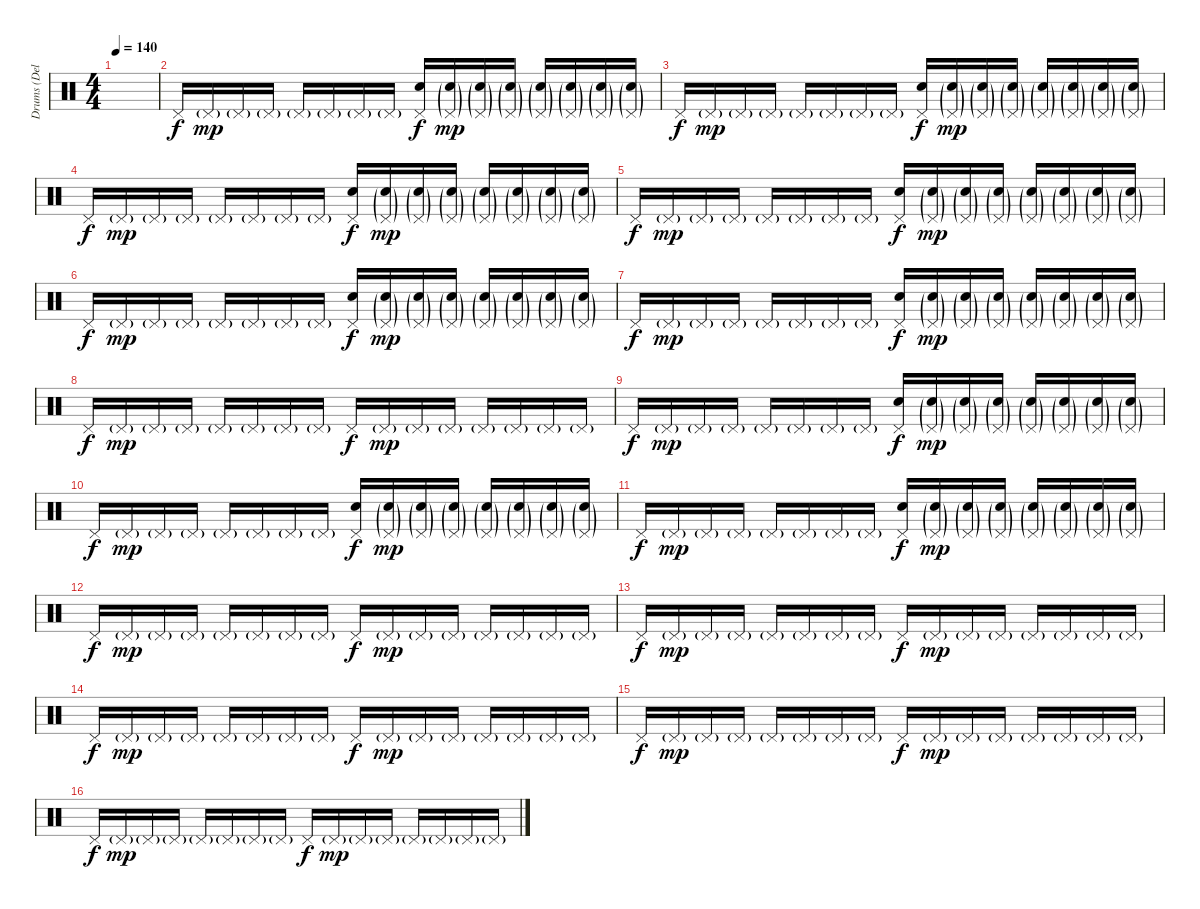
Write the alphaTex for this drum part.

\track ("Drums (Delay Effect)" "Drums (Del") {instrument percussion}
\staff {score}
\articulation defaults
\ts (4 4)
\tempo 140
\clef neutral
\ks c
|
"Pedal Hi-Hat (hit)".16{dy f} "Pedal Hi-Hat (hit)"{g}.16{dy mp} "Pedal Hi-Hat (hit)"{g}.16 "Pedal Hi-Hat (hit)"{g}.16 "Pedal Hi-Hat (hit)"{g}.16 "Pedal Hi-Hat (hit)"{g}.16 "Pedal Hi-Hat (hit)"{g}.16 "Pedal Hi-Hat (hit)"{g}.16 ("Pedal Hi-Hat (hit)" "Electric Snare (hit)").16{dy f} ("Pedal Hi-Hat (hit)"{g} "Electric Snare (hit)"{g}).16{dy mp} ("Pedal Hi-Hat (hit)"{g} "Electric Snare (hit)"{g}).16 ("Pedal Hi-Hat (hit)"{g} "Electric Snare (hit)"{g}).16 ("Pedal Hi-Hat (hit)"{g} "Electric Snare (hit)"{g}).16 ("Pedal Hi-Hat (hit)"{g} "Electric Snare (hit)"{g}).16 ("Pedal Hi-Hat (hit)"{g} "Electric Snare (hit)"{g}).16 ("Pedal Hi-Hat (hit)"{g} "Electric Snare (hit)"{g}).16 |
"Pedal Hi-Hat (hit)".16{dy f} "Pedal Hi-Hat (hit)"{g}.16{dy mp} "Pedal Hi-Hat (hit)"{g}.16 "Pedal Hi-Hat (hit)"{g}.16 "Pedal Hi-Hat (hit)"{g}.16 "Pedal Hi-Hat (hit)"{g}.16 "Pedal Hi-Hat (hit)"{g}.16 "Pedal Hi-Hat (hit)"{g}.16 ("Pedal Hi-Hat (hit)" "Electric Snare (hit)").16{dy f} ("Pedal Hi-Hat (hit)"{g} "Electric Snare (hit)"{g}).16{dy mp} ("Pedal Hi-Hat (hit)"{g} "Electric Snare (hit)"{g}).16 ("Pedal Hi-Hat (hit)"{g} "Electric Snare (hit)"{g}).16 ("Pedal Hi-Hat (hit)"{g} "Electric Snare (hit)"{g}).16 ("Pedal Hi-Hat (hit)"{g} "Electric Snare (hit)"{g}).16 ("Pedal Hi-Hat (hit)"{g} "Electric Snare (hit)"{g}).16 ("Pedal Hi-Hat (hit)"{g} "Electric Snare (hit)"{g}).16 |
"Pedal Hi-Hat (hit)".16{dy f} "Pedal Hi-Hat (hit)"{g}.16{dy mp} "Pedal Hi-Hat (hit)"{g}.16 "Pedal Hi-Hat (hit)"{g}.16 "Pedal Hi-Hat (hit)"{g}.16 "Pedal Hi-Hat (hit)"{g}.16 "Pedal Hi-Hat (hit)"{g}.16 "Pedal Hi-Hat (hit)"{g}.16 ("Pedal Hi-Hat (hit)" "Electric Snare (hit)").16{dy f} ("Pedal Hi-Hat (hit)"{g} "Electric Snare (hit)"{g}).16{dy mp} ("Pedal Hi-Hat (hit)"{g} "Electric Snare (hit)"{g}).16 ("Pedal Hi-Hat (hit)"{g} "Electric Snare (hit)"{g}).16 ("Pedal Hi-Hat (hit)"{g} "Electric Snare (hit)"{g}).16 ("Pedal Hi-Hat (hit)"{g} "Electric Snare (hit)"{g}).16 ("Pedal Hi-Hat (hit)"{g} "Electric Snare (hit)"{g}).16 ("Pedal Hi-Hat (hit)"{g} "Electric Snare (hit)"{g}).16 |
"Pedal Hi-Hat (hit)".16{dy f} "Pedal Hi-Hat (hit)"{g}.16{dy mp} "Pedal Hi-Hat (hit)"{g}.16 "Pedal Hi-Hat (hit)"{g}.16 "Pedal Hi-Hat (hit)"{g}.16 "Pedal Hi-Hat (hit)"{g}.16 "Pedal Hi-Hat (hit)"{g}.16 "Pedal Hi-Hat (hit)"{g}.16 ("Pedal Hi-Hat (hit)" "Electric Snare (hit)").16{dy f} ("Pedal Hi-Hat (hit)"{g} "Electric Snare (hit)"{g}).16{dy mp} ("Pedal Hi-Hat (hit)"{g} "Electric Snare (hit)"{g}).16 ("Pedal Hi-Hat (hit)"{g} "Electric Snare (hit)"{g}).16 ("Pedal Hi-Hat (hit)"{g} "Electric Snare (hit)"{g}).16 ("Pedal Hi-Hat (hit)"{g} "Electric Snare (hit)"{g}).16 ("Pedal Hi-Hat (hit)"{g} "Electric Snare (hit)"{g}).16 ("Pedal Hi-Hat (hit)"{g} "Electric Snare (hit)"{g}).16 |
"Pedal Hi-Hat (hit)".16{dy f} "Pedal Hi-Hat (hit)"{g}.16{dy mp} "Pedal Hi-Hat (hit)"{g}.16 "Pedal Hi-Hat (hit)"{g}.16 "Pedal Hi-Hat (hit)"{g}.16 "Pedal Hi-Hat (hit)"{g}.16 "Pedal Hi-Hat (hit)"{g}.16 "Pedal Hi-Hat (hit)"{g}.16 ("Pedal Hi-Hat (hit)" "Electric Snare (hit)").16{dy f} ("Pedal Hi-Hat (hit)"{g} "Electric Snare (hit)"{g}).16{dy mp} ("Pedal Hi-Hat (hit)"{g} "Electric Snare (hit)"{g}).16 ("Pedal Hi-Hat (hit)"{g} "Electric Snare (hit)"{g}).16 ("Pedal Hi-Hat (hit)"{g} "Electric Snare (hit)"{g}).16 ("Pedal Hi-Hat (hit)"{g} "Electric Snare (hit)"{g}).16 ("Pedal Hi-Hat (hit)"{g} "Electric Snare (hit)"{g}).16 ("Pedal Hi-Hat (hit)"{g} "Electric Snare (hit)"{g}).16 |
"Pedal Hi-Hat (hit)".16{dy f} "Pedal Hi-Hat (hit)"{g}.16{dy mp} "Pedal Hi-Hat (hit)"{g}.16 "Pedal Hi-Hat (hit)"{g}.16 "Pedal Hi-Hat (hit)"{g}.16 "Pedal Hi-Hat (hit)"{g}.16 "Pedal Hi-Hat (hit)"{g}.16 "Pedal Hi-Hat (hit)"{g}.16 ("Pedal Hi-Hat (hit)" "Electric Snare (hit)").16{dy f} ("Pedal Hi-Hat (hit)"{g} "Electric Snare (hit)"{g}).16{dy mp} ("Pedal Hi-Hat (hit)"{g} "Electric Snare (hit)"{g}).16 ("Pedal Hi-Hat (hit)"{g} "Electric Snare (hit)"{g}).16 ("Pedal Hi-Hat (hit)"{g} "Electric Snare (hit)"{g}).16 ("Pedal Hi-Hat (hit)"{g} "Electric Snare (hit)"{g}).16 ("Pedal Hi-Hat (hit)"{g} "Electric Snare (hit)"{g}).16 ("Pedal Hi-Hat (hit)"{g} "Electric Snare (hit)"{g}).16 |
"Pedal Hi-Hat (hit)".16{dy f} "Pedal Hi-Hat (hit)"{g}.16{dy mp} "Pedal Hi-Hat (hit)"{g}.16 "Pedal Hi-Hat (hit)"{g}.16 "Pedal Hi-Hat (hit)"{g}.16 "Pedal Hi-Hat (hit)"{g}.16 "Pedal Hi-Hat (hit)"{g}.16 "Pedal Hi-Hat (hit)"{g}.16 "Pedal Hi-Hat (hit)".16{dy f} "Pedal Hi-Hat (hit)"{g}.16{dy mp} "Pedal Hi-Hat (hit)"{g}.16 "Pedal Hi-Hat (hit)"{g}.16 "Pedal Hi-Hat (hit)"{g}.16 "Pedal Hi-Hat (hit)"{g}.16 "Pedal Hi-Hat (hit)"{g}.16 "Pedal Hi-Hat (hit)"{g}.16 |
"Pedal Hi-Hat (hit)".16{dy f} "Pedal Hi-Hat (hit)"{g}.16{dy mp} "Pedal Hi-Hat (hit)"{g}.16 "Pedal Hi-Hat (hit)"{g}.16 "Pedal Hi-Hat (hit)"{g}.16 "Pedal Hi-Hat (hit)"{g}.16 "Pedal Hi-Hat (hit)"{g}.16 "Pedal Hi-Hat (hit)"{g}.16 ("Pedal Hi-Hat (hit)" "Electric Snare (hit)").16{dy f} ("Pedal Hi-Hat (hit)"{g} "Electric Snare (hit)"{g}).16{dy mp} ("Pedal Hi-Hat (hit)"{g} "Electric Snare (hit)"{g}).16 ("Pedal Hi-Hat (hit)"{g} "Electric Snare (hit)"{g}).16 ("Pedal Hi-Hat (hit)"{g} "Electric Snare (hit)"{g}).16 ("Pedal Hi-Hat (hit)"{g} "Electric Snare (hit)"{g}).16 ("Pedal Hi-Hat (hit)"{g} "Electric Snare (hit)"{g}).16 ("Pedal Hi-Hat (hit)"{g} "Electric Snare (hit)"{g}).16 |
"Pedal Hi-Hat (hit)".16{dy f} "Pedal Hi-Hat (hit)"{g}.16{dy mp} "Pedal Hi-Hat (hit)"{g}.16 "Pedal Hi-Hat (hit)"{g}.16 "Pedal Hi-Hat (hit)"{g}.16 "Pedal Hi-Hat (hit)"{g}.16 "Pedal Hi-Hat (hit)"{g}.16 "Pedal Hi-Hat (hit)"{g}.16 ("Pedal Hi-Hat (hit)" "Electric Snare (hit)").16{dy f} ("Pedal Hi-Hat (hit)"{g} "Electric Snare (hit)"{g}).16{dy mp} ("Pedal Hi-Hat (hit)"{g} "Electric Snare (hit)"{g}).16 ("Pedal Hi-Hat (hit)"{g} "Electric Snare (hit)"{g}).16 ("Pedal Hi-Hat (hit)"{g} "Electric Snare (hit)"{g}).16 ("Pedal Hi-Hat (hit)"{g} "Electric Snare (hit)"{g}).16 ("Pedal Hi-Hat (hit)"{g} "Electric Snare (hit)"{g}).16 ("Pedal Hi-Hat (hit)"{g} "Electric Snare (hit)"{g}).16 |
"Pedal Hi-Hat (hit)".16{dy f} "Pedal Hi-Hat (hit)"{g}.16{dy mp} "Pedal Hi-Hat (hit)"{g}.16 "Pedal Hi-Hat (hit)"{g}.16 "Pedal Hi-Hat (hit)"{g}.16 "Pedal Hi-Hat (hit)"{g}.16 "Pedal Hi-Hat (hit)"{g}.16 "Pedal Hi-Hat (hit)"{g}.16 ("Pedal Hi-Hat (hit)" "Electric Snare (hit)").16{dy f} ("Pedal Hi-Hat (hit)"{g} "Electric Snare (hit)"{g}).16{dy mp} ("Pedal Hi-Hat (hit)"{g} "Electric Snare (hit)"{g}).16 ("Pedal Hi-Hat (hit)"{g} "Electric Snare (hit)"{g}).16 ("Pedal Hi-Hat (hit)"{g} "Electric Snare (hit)"{g}).16 ("Pedal Hi-Hat (hit)"{g} "Electric Snare (hit)"{g}).16 ("Pedal Hi-Hat (hit)"{g} "Electric Snare (hit)"{g}).16 ("Pedal Hi-Hat (hit)"{g} "Electric Snare (hit)"{g}).16 |
"Pedal Hi-Hat (hit)".16{dy f} "Pedal Hi-Hat (hit)"{g}.16{dy mp} "Pedal Hi-Hat (hit)"{g}.16 "Pedal Hi-Hat (hit)"{g}.16 "Pedal Hi-Hat (hit)"{g}.16 "Pedal Hi-Hat (hit)"{g}.16 "Pedal Hi-Hat (hit)"{g}.16 "Pedal Hi-Hat (hit)"{g}.16 "Pedal Hi-Hat (hit)".16{dy f} "Pedal Hi-Hat (hit)"{g}.16{dy mp} "Pedal Hi-Hat (hit)"{g}.16 "Pedal Hi-Hat (hit)"{g}.16 "Pedal Hi-Hat (hit)"{g}.16 "Pedal Hi-Hat (hit)"{g}.16 "Pedal Hi-Hat (hit)"{g}.16 "Pedal Hi-Hat (hit)"{g}.16 |
"Pedal Hi-Hat (hit)".16{dy f} "Pedal Hi-Hat (hit)"{g}.16{dy mp} "Pedal Hi-Hat (hit)"{g}.16 "Pedal Hi-Hat (hit)"{g}.16 "Pedal Hi-Hat (hit)"{g}.16 "Pedal Hi-Hat (hit)"{g}.16 "Pedal Hi-Hat (hit)"{g}.16 "Pedal Hi-Hat (hit)"{g}.16 "Pedal Hi-Hat (hit)".16{dy f} "Pedal Hi-Hat (hit)"{g}.16{dy mp} "Pedal Hi-Hat (hit)"{g}.16 "Pedal Hi-Hat (hit)"{g}.16 "Pedal Hi-Hat (hit)"{g}.16 "Pedal Hi-Hat (hit)"{g}.16 "Pedal Hi-Hat (hit)"{g}.16 "Pedal Hi-Hat (hit)"{g}.16 |
"Pedal Hi-Hat (hit)".16{dy f} "Pedal Hi-Hat (hit)"{g}.16{dy mp} "Pedal Hi-Hat (hit)"{g}.16 "Pedal Hi-Hat (hit)"{g}.16 "Pedal Hi-Hat (hit)"{g}.16 "Pedal Hi-Hat (hit)"{g}.16 "Pedal Hi-Hat (hit)"{g}.16 "Pedal Hi-Hat (hit)"{g}.16 "Pedal Hi-Hat (hit)".16{dy f} "Pedal Hi-Hat (hit)"{g}.16{dy mp} "Pedal Hi-Hat (hit)"{g}.16 "Pedal Hi-Hat (hit)"{g}.16 "Pedal Hi-Hat (hit)"{g}.16 "Pedal Hi-Hat (hit)"{g}.16 "Pedal Hi-Hat (hit)"{g}.16 "Pedal Hi-Hat (hit)"{g}.16 |
"Pedal Hi-Hat (hit)".16{dy f} "Pedal Hi-Hat (hit)"{g}.16{dy mp} "Pedal Hi-Hat (hit)"{g}.16 "Pedal Hi-Hat (hit)"{g}.16 "Pedal Hi-Hat (hit)"{g}.16 "Pedal Hi-Hat (hit)"{g}.16 "Pedal Hi-Hat (hit)"{g}.16 "Pedal Hi-Hat (hit)"{g}.16 "Pedal Hi-Hat (hit)".16{dy f} "Pedal Hi-Hat (hit)"{g}.16{dy mp} "Pedal Hi-Hat (hit)"{g}.16 "Pedal Hi-Hat (hit)"{g}.16 "Pedal Hi-Hat (hit)"{g}.16 "Pedal Hi-Hat (hit)"{g}.16 "Pedal Hi-Hat (hit)"{g}.16 "Pedal Hi-Hat (hit)"{g}.16 |
"Pedal Hi-Hat (hit)".16{dy f volume 0} "Pedal Hi-Hat (hit)"{g}.16{dy mp} "Pedal Hi-Hat (hit)"{g}.16 "Pedal Hi-Hat (hit)"{g}.16 "Pedal Hi-Hat (hit)"{g}.16 "Pedal Hi-Hat (hit)"{g}.16 "Pedal Hi-Hat (hit)"{g}.16 "Pedal Hi-Hat (hit)"{g}.16 "Pedal Hi-Hat (hit)".16{dy f} "Pedal Hi-Hat (hit)"{g}.16{dy mp} "Pedal Hi-Hat (hit)"{g}.16 "Pedal Hi-Hat (hit)"{g}.16 "Pedal Hi-Hat (hit)"{g}.16 "Pedal Hi-Hat (hit)"{g}.16 "Pedal Hi-Hat (hit)"{g}.16 "Pedal Hi-Hat (hit)"{g}.16
